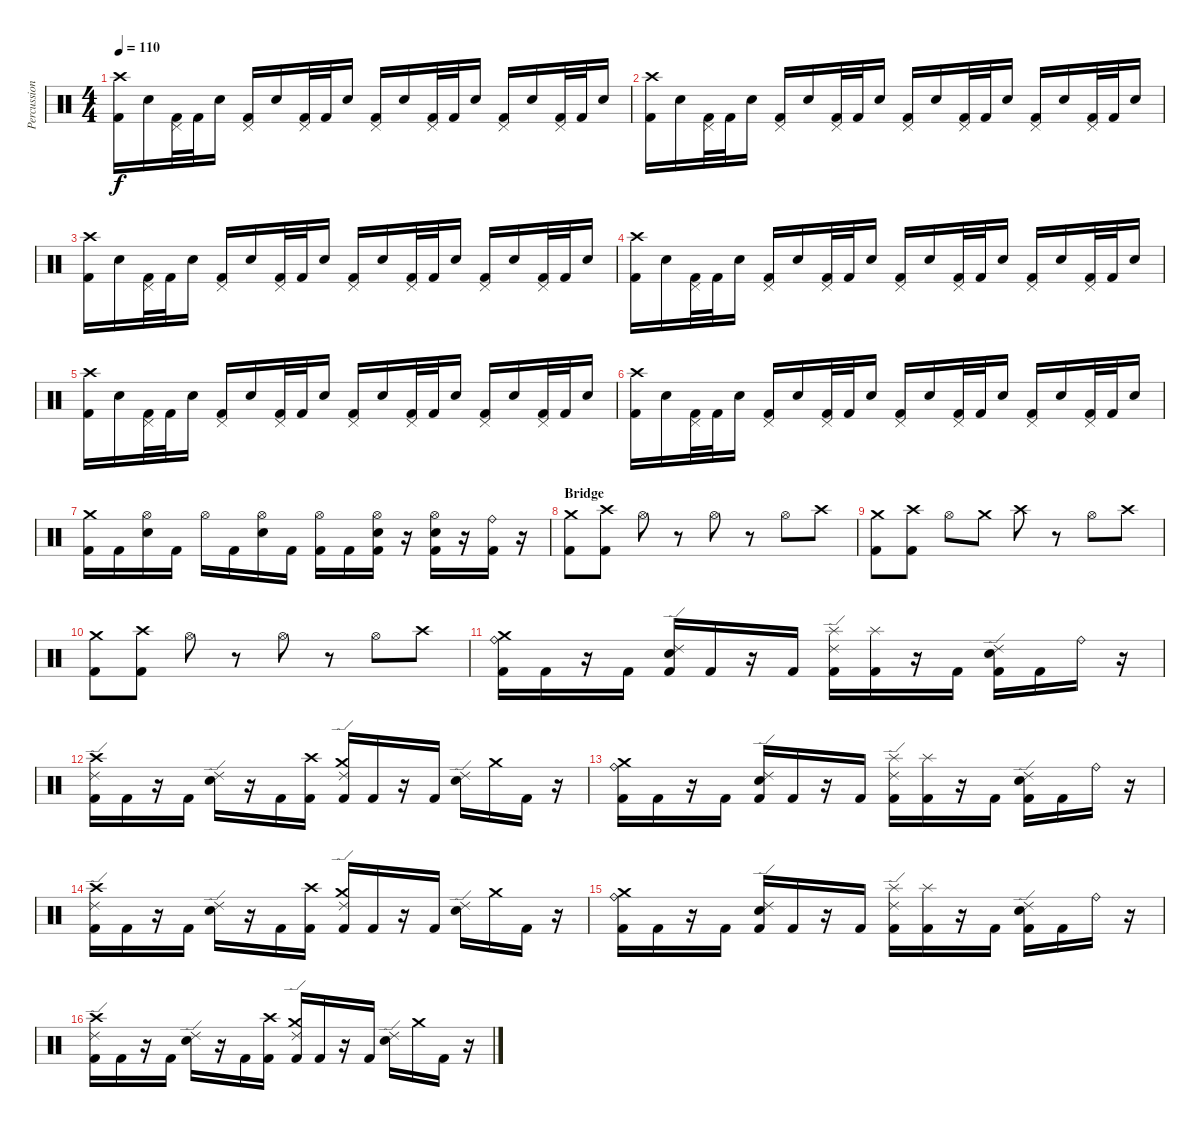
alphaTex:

\track ("Percussion" "Percussion") {instrument percussion}
\staff {score}
\articulation defaults
\ts (4 4)
\tempo 110
\clef neutral
\ks c
("Crash high (hit)" "Kick (hit) 2").16{dy f} "Snare (hit) 2".16 ("Pedal Hi-Hat (hit)" "Kick (hit) 2").32 "Kick (hit) 2".32 "Snare (hit) 2".16 ("Pedal Hi-Hat (hit)" "Kick (hit) 2").16 "Snare (hit) 2".16 ("Pedal Hi-Hat (hit)" "Kick (hit) 2").32 "Kick (hit) 2".32 "Snare (hit) 2".16 ("Pedal Hi-Hat (hit)" "Kick (hit) 2").16 "Snare (hit) 2".16 ("Pedal Hi-Hat (hit)" "Kick (hit) 2").32 "Kick (hit) 2".32 "Snare (hit) 2".16 ("Pedal Hi-Hat (hit)" "Kick (hit) 2").16 "Snare (hit) 2".16 ("Pedal Hi-Hat (hit)" "Kick (hit) 2").32 "Kick (hit) 2".32 "Snare (hit) 2".16 |
("Crash high (hit)" "Kick (hit) 2").16 "Snare (hit) 2".16 ("Pedal Hi-Hat (hit)" "Kick (hit) 2").32 "Kick (hit) 2".32 "Snare (hit) 2".16 ("Pedal Hi-Hat (hit)" "Kick (hit) 2").16 "Snare (hit) 2".16 ("Pedal Hi-Hat (hit)" "Kick (hit) 2").32 "Kick (hit) 2".32 "Snare (hit) 2".16 ("Pedal Hi-Hat (hit)" "Kick (hit) 2").16 "Snare (hit) 2".16 ("Pedal Hi-Hat (hit)" "Kick (hit) 2").32 "Kick (hit) 2".32 "Snare (hit) 2".16 ("Pedal Hi-Hat (hit)" "Kick (hit) 2").16 "Snare (hit) 2".16 ("Pedal Hi-Hat (hit)" "Kick (hit) 2").32 "Kick (hit) 2".32 "Snare (hit) 2".16 |
("Crash high (hit)" "Kick (hit) 2").16 "Snare (hit) 2".16 ("Pedal Hi-Hat (hit)" "Kick (hit) 2").32 "Kick (hit) 2".32 "Snare (hit) 2".16 ("Pedal Hi-Hat (hit)" "Kick (hit) 2").16 "Snare (hit) 2".16 ("Pedal Hi-Hat (hit)" "Kick (hit) 2").32 "Kick (hit) 2".32 "Snare (hit) 2".16 ("Pedal Hi-Hat (hit)" "Kick (hit) 2").16 "Snare (hit) 2".16 ("Pedal Hi-Hat (hit)" "Kick (hit) 2").32 "Kick (hit) 2".32 "Snare (hit) 2".16 ("Pedal Hi-Hat (hit)" "Kick (hit) 2").16 "Snare (hit) 2".16 ("Pedal Hi-Hat (hit)" "Kick (hit) 2").32 "Kick (hit) 2".32 "Snare (hit) 2".16 |
("Crash high (hit)" "Kick (hit) 2").16 "Snare (hit) 2".16 ("Pedal Hi-Hat (hit)" "Kick (hit) 2").32 "Kick (hit) 2".32 "Snare (hit) 2".16 ("Pedal Hi-Hat (hit)" "Kick (hit) 2").16 "Snare (hit) 2".16 ("Pedal Hi-Hat (hit)" "Kick (hit) 2").32 "Kick (hit) 2".32 "Snare (hit) 2".16 ("Pedal Hi-Hat (hit)" "Kick (hit) 2").16 "Snare (hit) 2".16 ("Pedal Hi-Hat (hit)" "Kick (hit) 2").32 "Kick (hit) 2".32 "Snare (hit) 2".16 ("Pedal Hi-Hat (hit)" "Kick (hit) 2").16 "Snare (hit) 2".16 ("Pedal Hi-Hat (hit)" "Kick (hit) 2").32 "Kick (hit) 2".32 "Snare (hit) 2".16 |
("Crash high (hit)" "Kick (hit) 2").16 "Snare (hit) 2".16 ("Pedal Hi-Hat (hit)" "Kick (hit) 2").32 "Kick (hit) 2".32 "Snare (hit) 2".16 ("Pedal Hi-Hat (hit)" "Kick (hit) 2").16 "Snare (hit) 2".16 ("Pedal Hi-Hat (hit)" "Kick (hit) 2").32 "Kick (hit) 2".32 "Snare (hit) 2".16 ("Pedal Hi-Hat (hit)" "Kick (hit) 2").16 "Snare (hit) 2".16 ("Pedal Hi-Hat (hit)" "Kick (hit) 2").32 "Kick (hit) 2".32 "Snare (hit) 2".16 ("Pedal Hi-Hat (hit)" "Kick (hit) 2").16 "Snare (hit) 2".16 ("Pedal Hi-Hat (hit)" "Kick (hit) 2").32 "Kick (hit) 2".32 "Snare (hit) 2".16 |
("Crash high (hit)" "Kick (hit) 2").16 "Snare (hit) 2".16 ("Pedal Hi-Hat (hit)" "Kick (hit) 2").32 "Kick (hit) 2".32 "Snare (hit) 2".16 ("Pedal Hi-Hat (hit)" "Kick (hit) 2").16 "Snare (hit) 2".16 ("Pedal Hi-Hat (hit)" "Kick (hit) 2").32 "Kick (hit) 2".32 "Snare (hit) 2".16 ("Pedal Hi-Hat (hit)" "Kick (hit) 2").16 "Snare (hit) 2".16 ("Pedal Hi-Hat (hit)" "Kick (hit) 2").32 "Kick (hit) 2".32 "Snare (hit) 2".16 ("Pedal Hi-Hat (hit)" "Kick (hit) 2").16 "Snare (hit) 2".16 ("Pedal Hi-Hat (hit)" "Kick (hit) 2").32 "Kick (hit) 2".32 "Snare (hit) 2".16 |
("Crash medium (hit)" "Kick (hit) 2").16 "Kick (hit) 2".16 ("Hi-Hat (open)" "Snare (hit) 2").16 "Kick (hit) 2".16 "Hi-Hat (open)".16 "Kick (hit) 2".16 ("Hi-Hat (open)" "Snare (hit) 2").16 "Kick (hit) 2".16 ("Hi-Hat (open)" "Kick (hit) 2").16 "Kick (hit) 2".16 ("Hi-Hat (open)" "Snare (hit) 2" "Kick (hit) 2").16 r.16 ("Hi-Hat (open)" "Snare (hit) 2" "Kick (hit) 2").16 r.16 ("Ride (bell)" "Kick (hit) 2").16 r.16 |
\section ("" "Bridge")
("Crash medium (hit)" "Kick (hit) 2").8 ("Crash high (hit)" "Kick (hit) 2").8 "Hi-Hat (open)".8 r.8 "Hi-Hat (open)".8 r.8 "Hi-Hat (open)".8 "Crash high (hit)".8 |
("Crash medium (hit)" "Kick (hit) 2").8 ("Crash high (hit)" "Kick (hit) 2").8 "Hi-Hat (open)".8 "Crash medium (hit)".8 "Crash high (hit)".8 r.8 "Hi-Hat (open)".8 "Crash high (hit)".8 |
("Crash medium (hit)" "Kick (hit) 2").8 ("Crash high (hit)" "Kick (hit) 2").8 "Hi-Hat (open)".8 r.8 "Hi-Hat (open)".8 r.8 "Hi-Hat (open)".8 "Crash high (hit)".8 |
("Crash medium (hit)" "Ride (bell)" "Kick (hit) 2").16 "Kick (hit) 2".16 r.16 "Kick (hit) 2".16 ("Ride (edge) 2" "Snare (hit) 2" "Kick (hit) 2").16 "Kick (hit) 2".16 r.16 "Kick (hit) 2".16 ("Splash (hit)" "Ride (edge) 2" "Kick (hit) 2").16 ("Splash (hit)" "Kick (hit) 2").16 r.16 "Kick (hit) 2".16 ("Ride (edge) 2" "Snare (hit) 2" "Kick (hit) 2").16 "Kick (hit) 2".16 "Ride (bell)".16 r.16 |
("Crash high (hit)" "Ride (edge) 2" "Kick (hit) 2").16 "Kick (hit) 2".16 r.16 "Kick (hit) 2".16 ("Ride (edge) 2" "Snare (hit) 2").16 r.16 "Kick (hit) 2".16 ("Crash high (hit)" "Kick (hit) 2").16 ("Crash medium (hit)" "Ride (edge) 2" "Kick (hit) 2").16 "Kick (hit) 2".16 r.16 "Kick (hit) 2".16 ("Ride (edge) 2" "Snare (hit) 2").16 "Crash medium (hit)".16 "Kick (hit) 2".16 r.16 |
("Crash medium (hit)" "Ride (bell)" "Kick (hit) 2").16 "Kick (hit) 2".16 r.16 "Kick (hit) 2".16 ("Ride (edge) 2" "Snare (hit) 2" "Kick (hit) 2").16 "Kick (hit) 2".16 r.16 "Kick (hit) 2".16 ("Splash (hit)" "Ride (edge) 2" "Kick (hit) 2").16 ("Splash (hit)" "Kick (hit) 2").16 r.16 "Kick (hit) 2".16 ("Ride (edge) 2" "Snare (hit) 2" "Kick (hit) 2").16 "Kick (hit) 2".16 "Ride (bell)".16 r.16 |
("Crash high (hit)" "Ride (edge) 2" "Kick (hit) 2").16 "Kick (hit) 2".16 r.16 "Kick (hit) 2".16 ("Ride (edge) 2" "Snare (hit) 2").16 r.16 "Kick (hit) 2".16 ("Crash high (hit)" "Kick (hit) 2").16 ("Crash medium (hit)" "Ride (edge) 2" "Kick (hit) 2").16 "Kick (hit) 2".16 r.16 "Kick (hit) 2".16 ("Ride (edge) 2" "Snare (hit) 2").16 "Crash medium (hit)".16 "Kick (hit) 2".16 r.16 |
("Crash medium (hit)" "Ride (bell)" "Kick (hit) 2").16 "Kick (hit) 2".16 r.16 "Kick (hit) 2".16 ("Ride (edge) 2" "Snare (hit) 2" "Kick (hit) 2").16 "Kick (hit) 2".16 r.16 "Kick (hit) 2".16 ("Splash (hit)" "Ride (edge) 2" "Kick (hit) 2").16 ("Splash (hit)" "Kick (hit) 2").16 r.16 "Kick (hit) 2".16 ("Ride (edge) 2" "Snare (hit) 2" "Kick (hit) 2").16 "Kick (hit) 2".16 "Ride (bell)".16 r.16 |
("Crash high (hit)" "Ride (edge) 2" "Kick (hit) 2").16 "Kick (hit) 2".16 r.16 "Kick (hit) 2".16 ("Ride (edge) 2" "Snare (hit) 2").16 r.16 "Kick (hit) 2".16 ("Crash high (hit)" "Kick (hit) 2").16 ("Crash medium (hit)" "Ride (edge) 2" "Kick (hit) 2").16 "Kick (hit) 2".16 r.16 "Kick (hit) 2".16 ("Ride (edge) 2" "Snare (hit) 2").16 "Crash medium (hit)".16 "Kick (hit) 2".16 r.16
